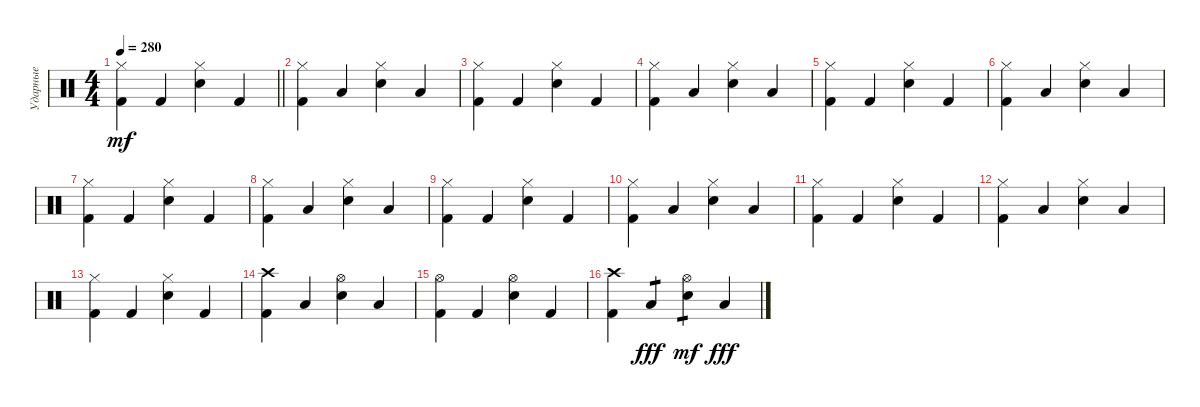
\track ("Ударные" "Ударные") {instrument percussion}
\staff {score}
\articulation defaults
\ts (4 4)
\tempo 280
\clef neutral
\barLineRight lightlight
\ks c
("Kick (hit) 2" "Hi-Hat (closed)").4{dy mf} "Kick (hit) 2".4 ("Snare (hit) 2" "Hi-Hat (closed)").4 "Kick (hit) 2".4 |
("Kick (hit) 2" "Hi-Hat (closed)").4 "Low Floor Tom (hit)".4 ("Snare (hit) 2" "Hi-Hat (closed)").4 "Low Floor Tom (hit)".4 |
("Kick (hit) 2" "Hi-Hat (closed)").4 "Kick (hit) 2".4 ("Snare (hit) 2" "Hi-Hat (closed)").4 "Kick (hit) 2".4 |
("Kick (hit) 2" "Hi-Hat (closed)").4 "Low Floor Tom (hit)".4 ("Snare (hit) 2" "Hi-Hat (closed)").4 "Low Floor Tom (hit)".4 |
("Kick (hit) 2" "Hi-Hat (closed)").4 "Kick (hit) 2".4 ("Snare (hit) 2" "Hi-Hat (closed)").4 "Kick (hit) 2".4 |
("Kick (hit) 2" "Hi-Hat (closed)").4 "Low Floor Tom (hit)".4 ("Snare (hit) 2" "Hi-Hat (closed)").4 "Low Floor Tom (hit)".4 |
("Kick (hit) 2" "Hi-Hat (closed)").4 "Kick (hit) 2".4 ("Snare (hit) 2" "Hi-Hat (closed)").4 "Kick (hit) 2".4 |
("Kick (hit) 2" "Hi-Hat (closed)").4 "Low Floor Tom (hit)".4 ("Snare (hit) 2" "Hi-Hat (closed)").4 "Low Floor Tom (hit)".4 |
("Kick (hit) 2" "Hi-Hat (closed)").4 "Kick (hit) 2".4 ("Snare (hit) 2" "Hi-Hat (closed)").4 "Kick (hit) 2".4 |
("Kick (hit) 2" "Hi-Hat (closed)").4 "Low Floor Tom (hit)".4 ("Snare (hit) 2" "Hi-Hat (closed)").4 "Low Floor Tom (hit)".4 |
("Kick (hit) 2" "Hi-Hat (closed)").4 "Kick (hit) 2".4 ("Snare (hit) 2" "Hi-Hat (closed)").4 "Kick (hit) 2".4 |
("Kick (hit) 2" "Hi-Hat (closed)").4 "Low Floor Tom (hit)".4 ("Snare (hit) 2" "Hi-Hat (closed)").4 "Low Floor Tom (hit)".4 |
("Kick (hit) 2" "Hi-Hat (closed)").4 "Kick (hit) 2".4 ("Snare (hit) 2" "Hi-Hat (closed)").4 "Kick (hit) 2".4 |
("Kick (hit) 2" "Crash high (hit)").4 "Low Floor Tom (hit)".4 ("Snare (hit) 2" "Hi-Hat (open)").4 "Low Floor Tom (hit)".4 |
("Kick (hit) 2" "Hi-Hat (open)").4 "Kick (hit) 2".4 ("Snare (hit) 2" "Hi-Hat (open)").4 "Kick (hit) 2".4 |
("Kick (hit) 2" "Crash high (hit)").4 "Low Tom (hit)".4{tp 1 dy fff} ("Snare (hit) 2" "Hi-Hat (open)").4{tp 1 dy mf} "Low Tom (hit)".4{dy fff}
